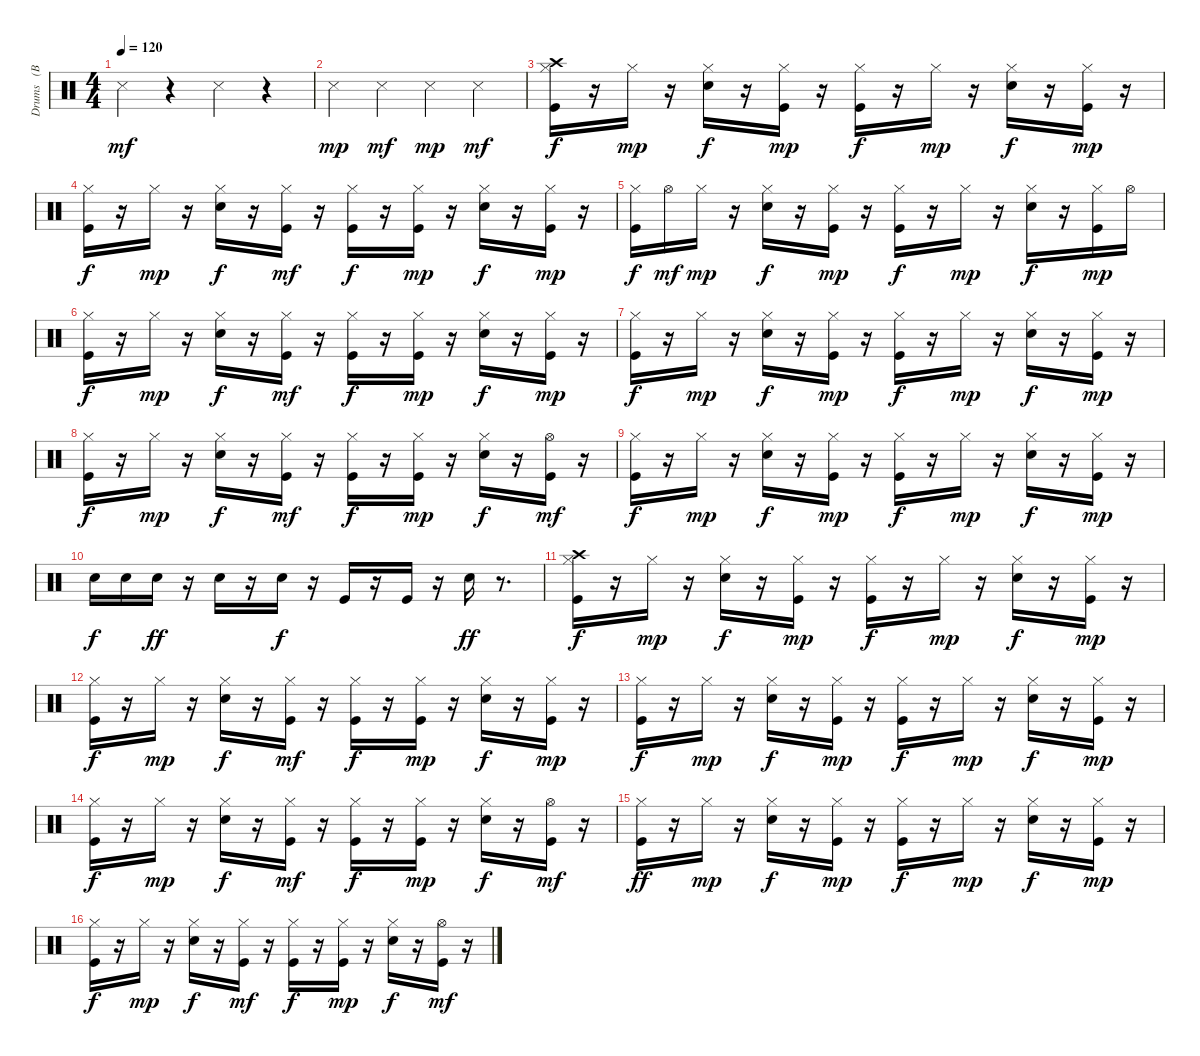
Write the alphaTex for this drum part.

\track ("Drums   (BB)" "Drums   (B") {instrument percussion}
\staff {score}
\articulation defaults
\ts (4 4)
\tempo 120
\clef neutral
\ks c "Snare (side stick) 3".4{dy mf}
r.4 "Snare (side stick) 3".4 r.4 |
"Snare (side stick) 3".4{dy mp} "Snare (side stick) 3".4{dy mf} "Snare (side stick) 3".4{dy mp} "Snare (side stick) 3".4{dy mf} |
("Kick (hit)" "Hi-Hat (closed)" "Crash high (hit)").16{dy f} r.16 "Hi-Hat (closed)".16{dy mp} r.16 ("Snare (hit) 2" "Hi-Hat (closed)").16{dy f} r.16 ("Kick (hit)" "Hi-Hat (closed)").16{dy mp} r.16 ("Kick (hit)" "Hi-Hat (closed)").16{dy f} r.16 "Hi-Hat (closed)".16{dy mp} r.16 ("Snare (hit) 2" "Hi-Hat (closed)").16{dy f} r.16 ("Kick (hit)" "Hi-Hat (closed)").16{dy mp} r.16 |
("Kick (hit)" "Hi-Hat (closed)").16{dy f} r.16 "Hi-Hat (closed)".16{dy mp} r.16 ("Snare (hit) 2" "Hi-Hat (closed)").16{dy f} r.16 ("Kick (hit)" "Hi-Hat (closed)").16{dy mf} r.16 ("Kick (hit)" "Hi-Hat (closed)").16{dy f} r.16 ("Kick (hit)" "Hi-Hat (closed)").16{dy mp} r.16 ("Snare (hit) 2" "Hi-Hat (closed)").16{dy f} r.16 ("Kick (hit)" "Hi-Hat (closed)").16{dy mp} r.16 |
("Kick (hit)" "Hi-Hat (closed)").16{dy f} "Hi-Hat (open)".16{dy mf} "Hi-Hat (closed)".16{dy mp} r.16 ("Snare (hit) 2" "Hi-Hat (closed)").16{dy f} r.16 ("Kick (hit)" "Hi-Hat (closed)").16{dy mp} r.16 ("Kick (hit)" "Hi-Hat (closed)").16{dy f} r.16 "Hi-Hat (closed)".16{dy mp} r.16 ("Snare (hit) 2" "Hi-Hat (closed)").16{dy f} r.16 ("Kick (hit)" "Hi-Hat (closed)").16{dy mp} "Hi-Hat (open)".16 |
("Kick (hit)" "Hi-Hat (closed)").16{dy f} r.16 "Hi-Hat (closed)".16{dy mp} r.16 ("Snare (hit) 2" "Hi-Hat (closed)").16{dy f} r.16 ("Kick (hit)" "Hi-Hat (closed)").16{dy mf} r.16 ("Kick (hit)" "Hi-Hat (closed)").16{dy f} r.16 ("Kick (hit)" "Hi-Hat (closed)").16{dy mp} r.16 ("Snare (hit) 2" "Hi-Hat (closed)").16{dy f} r.16 ("Kick (hit)" "Hi-Hat (closed)").16{dy mp} r.16 |
("Kick (hit)" "Hi-Hat (closed)").16{dy f} r.16 "Hi-Hat (closed)".16{dy mp} r.16 ("Snare (hit) 2" "Hi-Hat (closed)").16{dy f} r.16 ("Kick (hit)" "Hi-Hat (closed)").16{dy mp} r.16 ("Kick (hit)" "Hi-Hat (closed)").16{dy f} r.16 "Hi-Hat (closed)".16{dy mp} r.16 ("Snare (hit) 2" "Hi-Hat (closed)").16{dy f} r.16 ("Kick (hit)" "Hi-Hat (closed)").16{dy mp} r.16 |
("Kick (hit)" "Hi-Hat (closed)").16{dy f} r.16 "Hi-Hat (closed)".16{dy mp} r.16 ("Snare (hit) 2" "Hi-Hat (closed)").16{dy f} r.16 ("Kick (hit)" "Hi-Hat (closed)").16{dy mf} r.16 ("Kick (hit)" "Hi-Hat (closed)").16{dy f} r.16 ("Kick (hit)" "Hi-Hat (closed)").16{dy mp} r.16 ("Snare (hit) 2" "Hi-Hat (closed)").16{dy f} r.16 ("Kick (hit)" "Hi-Hat (open)").16{dy mf} r.16 |
("Kick (hit)" "Hi-Hat (closed)").16{dy f} r.16 "Hi-Hat (closed)".16{dy mp} r.16 ("Snare (hit) 2" "Hi-Hat (closed)").16{dy f} r.16 ("Kick (hit)" "Hi-Hat (closed)").16{dy mp} r.16 ("Kick (hit)" "Hi-Hat (closed)").16{dy f} r.16 "Hi-Hat (closed)".16{dy mp} r.16 ("Snare (hit) 2" "Hi-Hat (closed)").16{dy f} r.16 ("Kick (hit)" "Hi-Hat (closed)").16{dy mp} r.16 |
"Snare (hit) 2".16{dy f} "Snare (hit) 2".16 "Snare (hit) 2".16{dy ff} r.16 "Snare (hit) 2".16 r.16 "Snare (hit) 2".16{dy f} r.16 "Kick (hit)".16 r.16 "Kick (hit)".16 r.16 "Snare (hit) 2".16{dy ff} r.8{d} |
("Kick (hit)" "Hi-Hat (closed)" "Crash high (hit)").16{dy f} r.16 "Hi-Hat (closed)".16{dy mp} r.16 ("Snare (hit) 2" "Hi-Hat (closed)").16{dy f} r.16 ("Kick (hit)" "Hi-Hat (closed)").16{dy mp} r.16 ("Kick (hit)" "Hi-Hat (closed)").16{dy f} r.16 "Hi-Hat (closed)".16{dy mp} r.16 ("Snare (hit) 2" "Hi-Hat (closed)").16{dy f} r.16 ("Kick (hit)" "Hi-Hat (closed)").16{dy mp} r.16 |
("Kick (hit)" "Hi-Hat (closed)").16{dy f} r.16 "Hi-Hat (closed)".16{dy mp} r.16 ("Snare (hit) 2" "Hi-Hat (closed)").16{dy f} r.16 ("Kick (hit)" "Hi-Hat (closed)").16{dy mf} r.16 ("Kick (hit)" "Hi-Hat (closed)").16{dy f} r.16 ("Kick (hit)" "Hi-Hat (closed)").16{dy mp} r.16 ("Snare (hit) 2" "Hi-Hat (closed)").16{dy f} r.16 ("Kick (hit)" "Hi-Hat (closed)").16{dy mp} r.16 |
("Kick (hit)" "Hi-Hat (closed)").16{dy f} r.16 "Hi-Hat (closed)".16{dy mp} r.16 ("Snare (hit) 2" "Hi-Hat (closed)").16{dy f} r.16 ("Kick (hit)" "Hi-Hat (closed)").16{dy mp} r.16 ("Kick (hit)" "Hi-Hat (closed)").16{dy f} r.16 "Hi-Hat (closed)".16{dy mp} r.16 ("Snare (hit) 2" "Hi-Hat (closed)").16{dy f} r.16 ("Kick (hit)" "Hi-Hat (closed)").16{dy mp} r.16 |
("Kick (hit)" "Hi-Hat (closed)").16{dy f} r.16 "Hi-Hat (closed)".16{dy mp} r.16 ("Snare (hit) 2" "Hi-Hat (closed)").16{dy f} r.16 ("Kick (hit)" "Hi-Hat (closed)").16{dy mf} r.16 ("Kick (hit)" "Hi-Hat (closed)").16{dy f} r.16 ("Kick (hit)" "Hi-Hat (closed)").16{dy mp} r.16 ("Snare (hit) 2" "Hi-Hat (closed)").16{dy f} r.16 ("Kick (hit)" "Hi-Hat (open)").16{dy mf} r.16 |
("Kick (hit)" "Hi-Hat (closed)").16{dy ff} r.16 "Hi-Hat (closed)".16{dy mp} r.16 ("Snare (hit) 2" "Hi-Hat (closed)").16{dy f} r.16 ("Kick (hit)" "Hi-Hat (closed)").16{dy mp} r.16 ("Kick (hit)" "Hi-Hat (closed)").16{dy f} r.16 "Hi-Hat (closed)".16{dy mp} r.16 ("Snare (hit) 2" "Hi-Hat (closed)").16{dy f} r.16 ("Kick (hit)" "Hi-Hat (closed)").16{dy mp} r.16 |
("Kick (hit)" "Hi-Hat (closed)").16{dy f} r.16 "Hi-Hat (closed)".16{dy mp} r.16 ("Snare (hit) 2" "Hi-Hat (closed)").16{dy f} r.16 ("Kick (hit)" "Hi-Hat (closed)").16{dy mf} r.16 ("Kick (hit)" "Hi-Hat (closed)").16{dy f} r.16 ("Kick (hit)" "Hi-Hat (closed)").16{dy mp} r.16 ("Snare (hit) 2" "Hi-Hat (closed)").16{dy f} r.16 ("Kick (hit)" "Hi-Hat (open)").16{dy mf} r.16
